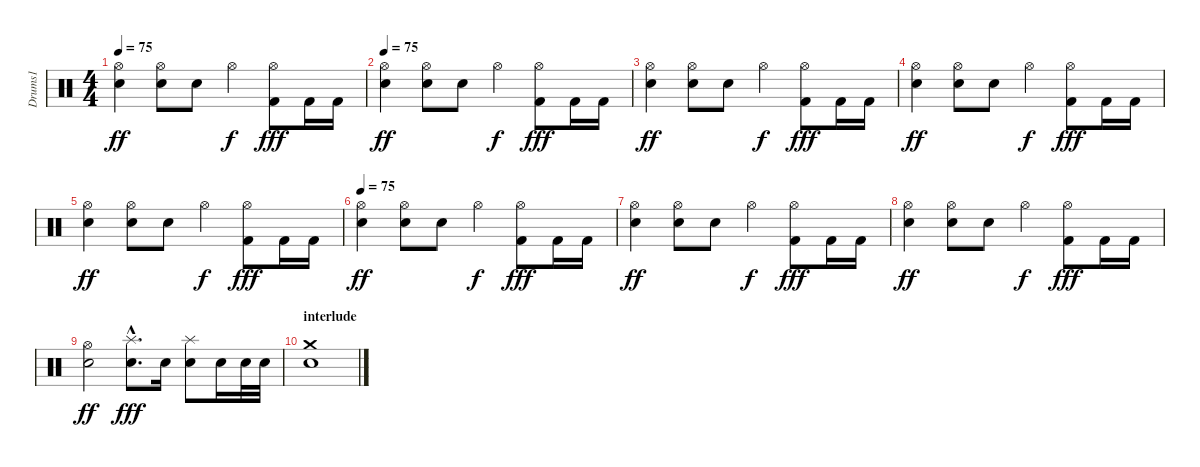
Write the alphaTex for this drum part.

\track ("Drums1" "Drums1") {instrument percussion}
\staff {score}
\articulation defaults
\ts (4 4)
\tempo 75
\clef neutral
\ks c
("Hi-Hat (open)" "Snare (hit) 2").4{dy ff} ("Hi-Hat (open)" "Snare (hit) 2").8 "Snare (hit) 2".8 "Hi-Hat (open)".4{dy f} ("Hi-Hat (open)" "Kick (hit) 2").8{dy fff} "Kick (hit) 2".16 "Kick (hit) 2".16 |
\tempo 75
("Hi-Hat (open)" "Snare (hit) 2").4{dy ff} ("Hi-Hat (open)" "Snare (hit) 2").8 "Snare (hit) 2".8 "Hi-Hat (open)".4{dy f} ("Hi-Hat (open)" "Kick (hit) 2").8{dy fff} "Kick (hit) 2".16 "Kick (hit) 2".16 |
("Hi-Hat (open)" "Snare (hit) 2").4{dy ff} ("Hi-Hat (open)" "Snare (hit) 2").8 "Snare (hit) 2".8 "Hi-Hat (open)".4{dy f} ("Hi-Hat (open)" "Kick (hit) 2").8{dy fff} "Kick (hit) 2".16 "Kick (hit) 2".16 |
("Hi-Hat (open)" "Snare (hit) 2").4{dy ff} ("Hi-Hat (open)" "Snare (hit) 2").8 "Snare (hit) 2".8 "Hi-Hat (open)".4{dy f} ("Hi-Hat (open)" "Kick (hit) 2").8{dy fff} "Kick (hit) 2".16 "Kick (hit) 2".16 |
("Hi-Hat (open)" "Snare (hit) 2").4{dy ff} ("Hi-Hat (open)" "Snare (hit) 2").8 "Snare (hit) 2".8 "Hi-Hat (open)".4{dy f} ("Hi-Hat (open)" "Kick (hit) 2").8{dy fff} "Kick (hit) 2".16 "Kick (hit) 2".16 |
\tempo 75
("Hi-Hat (open)" "Snare (hit) 2").4{dy ff} ("Hi-Hat (open)" "Snare (hit) 2").8 "Snare (hit) 2".8 "Hi-Hat (open)".4{dy f} ("Hi-Hat (open)" "Kick (hit) 2").8{dy fff} "Kick (hit) 2".16 "Kick (hit) 2".16 |
("Hi-Hat (open)" "Snare (hit) 2").4{dy ff} ("Hi-Hat (open)" "Snare (hit) 2").8 "Snare (hit) 2".8 "Hi-Hat (open)".4{dy f} ("Hi-Hat (open)" "Kick (hit) 2").8{dy fff} "Kick (hit) 2".16 "Kick (hit) 2".16 |
("Hi-Hat (open)" "Snare (hit) 2").4{dy ff} ("Hi-Hat (open)" "Snare (hit) 2").8 "Snare (hit) 2".8 "Hi-Hat (open)".4{dy f} ("Hi-Hat (open)" "Kick (hit) 2").8{dy fff} "Kick (hit) 2".16 "Kick (hit) 2".16 |
("Hi-Hat (open)" "Snare (hit) 2").2{dy ff} ("Splash (hit)"{hac} "Electric Snare (hit)"{hac}).8{d dy fff} "Electric Snare (hit)".16 ("Splash (hit)" "Electric Snare (hit)").8 "Electric Snare (hit)".16 "Electric Snare (hit)".32 "Electric Snare (hit)".32 |
\section ("" "interlude")
("Crash medium (hit)" "Electric Snare (hit)").1
